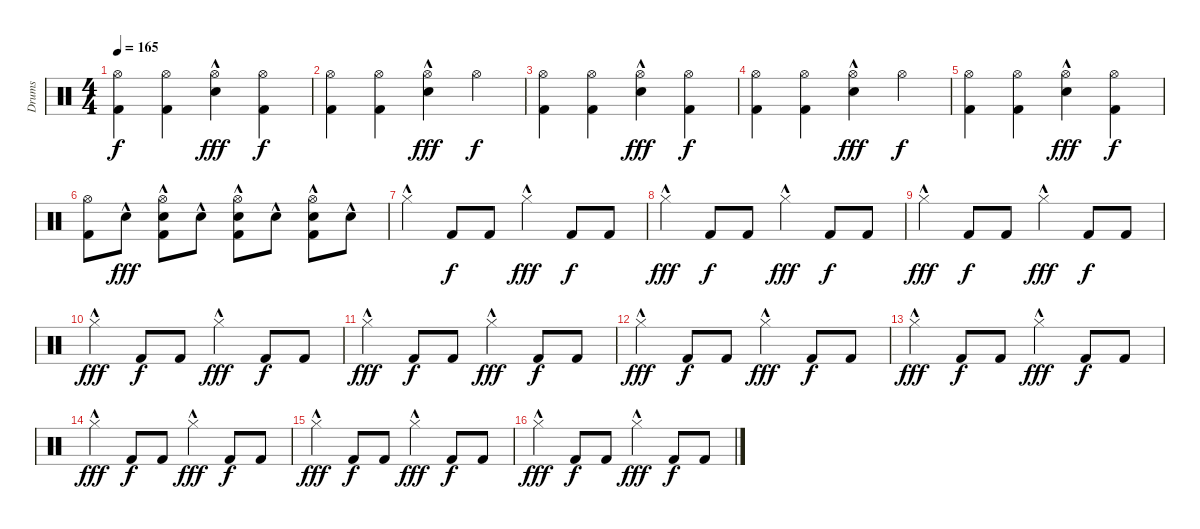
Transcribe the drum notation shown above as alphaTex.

\track ("Drums" "Drums") {instrument percussion}
\staff {score}
\articulation defaults
\ts (4 4)
\tempo 165
\clef neutral
\ks c
("Hi-Hat (open)" "Kick (hit) 2").4{dy f} ("Hi-Hat (open)" "Kick (hit) 2").4 ("Hi-Hat (open)" "Electric Snare (hit)"{hac}).4{dy fff} ("Hi-Hat (open)" "Kick (hit) 2").4{dy f} |
("Hi-Hat (open)" "Kick (hit) 2").4 ("Hi-Hat (open)" "Kick (hit) 2").4 ("Hi-Hat (open)" "Electric Snare (hit)"{hac}).4{dy fff} "Hi-Hat (open)".4{dy f} |
("Hi-Hat (open)" "Kick (hit) 2").4 ("Hi-Hat (open)" "Kick (hit) 2").4 ("Hi-Hat (open)" "Electric Snare (hit)"{hac}).4{dy fff} ("Hi-Hat (open)" "Kick (hit) 2").4{dy f} |
("Hi-Hat (open)" "Kick (hit) 2").4 ("Hi-Hat (open)" "Kick (hit) 2").4 ("Hi-Hat (open)" "Electric Snare (hit)"{hac}).4{dy fff} "Hi-Hat (open)".4{dy f} |
("Hi-Hat (open)" "Kick (hit) 2").4 ("Hi-Hat (open)" "Kick (hit) 2").4 ("Hi-Hat (open)" "Electric Snare (hit)"{hac}).4{dy fff} ("Hi-Hat (open)" "Kick (hit) 2").4{dy f} |
("Hi-Hat (open)" "Kick (hit) 2").8 "Electric Snare (hit)"{hac}.8{dy fff} ("Hi-Hat (open)" "Electric Snare (hit)"{hac} "Kick (hit) 2").8 "Electric Snare (hit)"{hac}.8 ("Hi-Hat (open)" "Electric Snare (hit)"{hac} "Kick (hit) 2").8 "Electric Snare (hit)"{hac}.8 ("Hi-Hat (open)" "Electric Snare (hit)"{hac} "Kick (hit) 2").8 "Electric Snare (hit)"{hac}.8 |
"Hi-Hat (closed)"{hac}.4 "Kick (hit) 2".8{dy f} "Kick (hit) 2".8 "Hi-Hat (closed)"{hac}.4{dy fff} "Kick (hit) 2".8{dy f} "Kick (hit) 2".8 |
"Hi-Hat (closed)"{hac}.4{dy fff} "Kick (hit) 2".8{dy f} "Kick (hit) 2".8 "Hi-Hat (closed)"{hac}.4{dy fff} "Kick (hit) 2".8{dy f} "Kick (hit) 2".8 |
"Hi-Hat (closed)"{hac}.4{dy fff} "Kick (hit) 2".8{dy f} "Kick (hit) 2".8 "Hi-Hat (closed)"{hac}.4{dy fff} "Kick (hit) 2".8{dy f} "Kick (hit) 2".8 |
"Hi-Hat (closed)"{hac}.4{dy fff} "Kick (hit) 2".8{dy f} "Kick (hit) 2".8 "Hi-Hat (closed)"{hac}.4{dy fff} "Kick (hit) 2".8{dy f} "Kick (hit) 2".8 |
"Hi-Hat (closed)"{hac}.4{dy fff} "Kick (hit) 2".8{dy f} "Kick (hit) 2".8 "Hi-Hat (closed)"{hac}.4{dy fff} "Kick (hit) 2".8{dy f} "Kick (hit) 2".8 |
"Hi-Hat (closed)"{hac}.4{dy fff} "Kick (hit) 2".8{dy f} "Kick (hit) 2".8 "Hi-Hat (closed)"{hac}.4{dy fff} "Kick (hit) 2".8{dy f} "Kick (hit) 2".8 |
"Hi-Hat (closed)"{hac}.4{dy fff} "Kick (hit) 2".8{dy f} "Kick (hit) 2".8 "Hi-Hat (closed)"{hac}.4{dy fff} "Kick (hit) 2".8{dy f} "Kick (hit) 2".8 |
"Hi-Hat (closed)"{hac}.4{dy fff} "Kick (hit) 2".8{dy f} "Kick (hit) 2".8 "Hi-Hat (closed)"{hac}.4{dy fff} "Kick (hit) 2".8{dy f} "Kick (hit) 2".8 |
"Hi-Hat (closed)"{hac}.4{dy fff} "Kick (hit) 2".8{dy f} "Kick (hit) 2".8 "Hi-Hat (closed)"{hac}.4{dy fff} "Kick (hit) 2".8{dy f} "Kick (hit) 2".8 |
"Hi-Hat (closed)"{hac}.4{dy fff} "Kick (hit) 2".8{dy f} "Kick (hit) 2".8 "Hi-Hat (closed)"{hac}.4{dy fff} "Kick (hit) 2".8{dy f} "Kick (hit) 2".8
